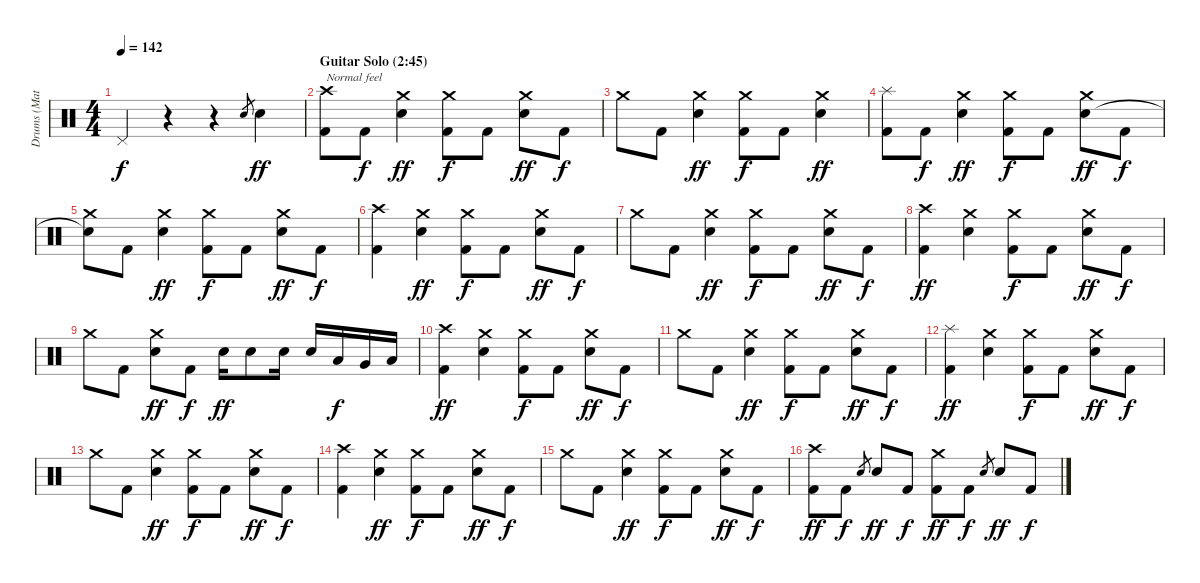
\track ("Drums (Matt Sorum)" "Drums (Mat") {instrument percussion}
\staff {score}
\articulation defaults
\ts (4 4)
\tempo 142
\clef neutral
\ks c "Pedal Hi-Hat (hit)".4{dy f}
r.4 r.4 "Snare (hit) 2".8{gr} "Snare (hit) 2".4{dy ff} |
\section ("" "Guitar Solo (2:45)")
("Crash high (hit)" "Kick (hit) 2").8{txt "Normal feel"} "Kick (hit) 2".8{dy f} ("Crash medium (hit)" "Snare (hit) 2").4{dy ff} ("Crash medium (hit)" "Kick (hit) 2").8{dy f} "Kick (hit) 2".8 ("Crash medium (hit)" "Snare (hit) 2").8{dy ff} "Kick (hit) 2".8{dy f} |
"Crash medium (hit)".8 "Kick (hit) 2".8 ("Crash medium (hit)" "Snare (hit) 2").4{dy ff} ("Crash medium (hit)" "Kick (hit) 2").8{dy f} "Kick (hit) 2".8 ("Crash medium (hit)" "Snare (hit) 2").4{dy ff} |
("Splash (hit)" "Kick (hit) 2").8 "Kick (hit) 2".8{dy f} ("Crash medium (hit)" "Snare (hit) 2").4{dy ff} ("Crash medium (hit)" "Kick (hit) 2").8{dy f} "Kick (hit) 2".8 ("Crash medium (hit)" "Snare (hit) 2").8{dy ff} "Kick (hit) 2".8{dy f} |
("Crash medium (hit)" "Snare (hit)"{t}).8 "Kick (hit) 2".8 ("Crash medium (hit)" "Snare (hit) 2").4{dy ff} ("Crash medium (hit)" "Kick (hit) 2").8{dy f} "Kick (hit) 2".8 ("Crash medium (hit)" "Snare (hit) 2").8{dy ff} "Kick (hit) 2".8{dy f} |
("Crash high (hit)" "Kick (hit) 2").4 ("Crash medium (hit)" "Snare (hit) 2").4{dy ff} ("Crash medium (hit)" "Kick (hit) 2").8{dy f} "Kick (hit) 2".8 ("Crash medium (hit)" "Snare (hit) 2").8{dy ff} "Kick (hit) 2".8{dy f} |
"Crash medium (hit)".8 "Kick (hit) 2".8 ("Crash medium (hit)" "Snare (hit) 2").4{dy ff} ("Crash medium (hit)" "Kick (hit) 2").8{dy f} "Kick (hit) 2".8 ("Crash medium (hit)" "Snare (hit) 2").8{dy ff} "Kick (hit) 2".8{dy f} |
("Crash high (hit)" "Kick (hit) 2").4{dy ff} ("Crash medium (hit)" "Snare (hit) 2").4 ("Crash medium (hit)" "Kick (hit) 2").8{dy f} "Kick (hit) 2".8 ("Crash medium (hit)" "Snare (hit) 2").8{dy ff} "Kick (hit) 2".8{dy f} |
"Crash medium (hit)".8 "Kick (hit) 2".8 ("Crash medium (hit)" "Snare (hit) 2").8{dy ff} "Kick (hit) 2".8{dy f} "Snare (hit) 2".16{dy ff} "Snare (hit) 2".8 "Snare (hit) 2".16 "Snare (hit) 2".16 "Low Tom (hit)".16{dy f} "Very Low Tom (hit)".16 "Low Floor Tom (hit)".16 |
("Crash high (hit)" "Kick (hit) 2").4{dy ff} ("Crash medium (hit)" "Snare (hit) 2").4 ("Crash medium (hit)" "Kick (hit) 2").8{dy f} "Kick (hit) 2".8 ("Crash medium (hit)" "Snare (hit) 2").8{dy ff} "Kick (hit) 2".8{dy f} |
"Crash medium (hit)".8 "Kick (hit) 2".8 ("Crash medium (hit)" "Snare (hit) 2").4{dy ff} ("Crash medium (hit)" "Kick (hit) 2").8{dy f} "Kick (hit) 2".8 ("Crash medium (hit)" "Snare (hit) 2").8{dy ff} "Kick (hit) 2".8{dy f} |
("Splash (hit)" "Kick (hit) 2").4{dy ff} ("Crash medium (hit)" "Snare (hit) 2").4 ("Crash medium (hit)" "Kick (hit) 2").8{dy f} "Kick (hit) 2".8 ("Crash medium (hit)" "Snare (hit) 2").8{dy ff} "Kick (hit) 2".8{dy f} |
"Crash medium (hit)".8 "Kick (hit) 2".8 ("Crash medium (hit)" "Snare (hit) 2").4{dy ff} ("Crash medium (hit)" "Kick (hit) 2").8{dy f} "Kick (hit) 2".8 ("Crash medium (hit)" "Snare (hit) 2").8{dy ff} "Kick (hit) 2".8{dy f} |
("Crash high (hit)" "Kick (hit) 2").4 ("Crash medium (hit)" "Snare (hit) 2").4{dy ff} ("Crash medium (hit)" "Kick (hit) 2").8{dy f} "Kick (hit) 2".8 ("Crash medium (hit)" "Snare (hit) 2").8{dy ff} "Kick (hit) 2".8{dy f} |
"Crash medium (hit)".8 "Kick (hit) 2".8 ("Crash medium (hit)" "Snare (hit) 2").4{dy ff} ("Crash medium (hit)" "Kick (hit) 2").8{dy f} "Kick (hit) 2".8 ("Crash medium (hit)" "Snare (hit) 2").8{dy ff} "Kick (hit) 2".8{dy f} |
("Crash high (hit)" "Kick (hit) 2").8{dy ff} "Kick (hit) 2".8{dy f} "Snare (hit) 2".8{gr} "Snare (hit) 2".8{dy ff} "Kick (hit) 2".8{dy f} ("Crash medium (hit)" "Kick (hit) 2").8{dy ff} "Kick (hit) 2".8{dy f} "Snare (hit) 2".8{gr} "Snare (hit) 2".8{dy ff} "Kick (hit) 2".8{dy f}
